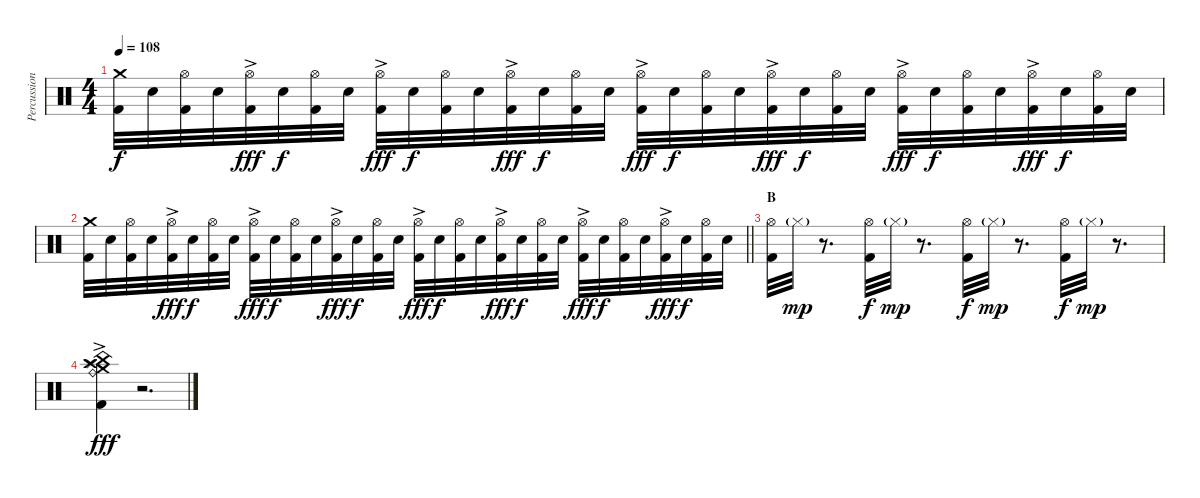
\track ("Percussion" "Percussion") {instrument percussion}
\staff {score}
\articulation defaults
\ts (4 4)
\tempo 108
\clef neutral
\ks c
("Crash medium (hit)" "Kick (hit) 2").32{dy f} "Electric Snare (hit)".32 ("Hi-Hat (open)" "Kick (hit) 2").32 "Electric Snare (hit)".32 ("Hi-Hat (open)"{ac} "Kick (hit) 2").32{dy fff} "Electric Snare (hit)".32{dy f} ("Hi-Hat (open)" "Kick (hit) 2").32 "Electric Snare (hit)".32 ("Hi-Hat (open)"{ac} "Kick (hit) 2").32{dy fff} "Electric Snare (hit)".32{dy f} ("Hi-Hat (open)" "Kick (hit) 2").32 "Electric Snare (hit)".32 ("Hi-Hat (open)"{ac} "Kick (hit) 2").32{dy fff} "Electric Snare (hit)".32{dy f} ("Hi-Hat (open)" "Kick (hit) 2").32 "Electric Snare (hit)".32 ("Hi-Hat (open)"{ac} "Kick (hit) 2").32{dy fff} "Electric Snare (hit)".32{dy f} ("Hi-Hat (open)" "Kick (hit) 2").32 "Electric Snare (hit)".32 ("Hi-Hat (open)"{ac} "Kick (hit) 2").32{dy fff} "Electric Snare (hit)".32{dy f} ("Hi-Hat (open)" "Kick (hit) 2").32 "Electric Snare (hit)".32 ("Hi-Hat (open)"{ac} "Kick (hit) 2").32{dy fff} "Electric Snare (hit)".32{dy f} ("Hi-Hat (open)" "Kick (hit) 2").32 "Electric Snare (hit)".32 ("Hi-Hat (open)"{ac} "Kick (hit) 2").32{dy fff} "Electric Snare (hit)".32{dy f} ("Hi-Hat (open)" "Kick (hit) 2").32 "Electric Snare (hit)".32 |
\barLineRight lightlight
("Crash medium (hit)" "Kick (hit) 2").32 "Electric Snare (hit)".32 ("Hi-Hat (open)" "Kick (hit) 2").32 "Electric Snare (hit)".32 ("Hi-Hat (open)"{ac} "Kick (hit) 2").32{dy fff} "Electric Snare (hit)".32{dy f} ("Hi-Hat (open)" "Kick (hit) 2").32 "Electric Snare (hit)".32 ("Hi-Hat (open)"{ac} "Kick (hit) 2").32{dy fff} "Electric Snare (hit)".32{dy f} ("Hi-Hat (open)" "Kick (hit) 2").32 "Electric Snare (hit)".32 ("Hi-Hat (open)"{ac} "Kick (hit) 2").32{dy fff} "Electric Snare (hit)".32{dy f} ("Hi-Hat (open)" "Kick (hit) 2").32 "Electric Snare (hit)".32 ("Hi-Hat (open)"{ac} "Kick (hit) 2").32{dy fff} "Electric Snare (hit)".32{dy f} ("Hi-Hat (open)" "Kick (hit) 2").32 "Electric Snare (hit)".32 ("Hi-Hat (open)"{ac} "Kick (hit) 2").32{dy fff} "Electric Snare (hit)".32{dy f} ("Hi-Hat (open)" "Kick (hit) 2").32 "Electric Snare (hit)".32 ("Hi-Hat (open)"{ac} "Kick (hit) 2").32{dy fff} "Electric Snare (hit)".32{dy f} ("Hi-Hat (open)" "Kick (hit) 2").32 "Electric Snare (hit)".32 ("Hi-Hat (open)"{ac} "Kick (hit) 2").32{dy fff} "Electric Snare (hit)".32{dy f} ("Hi-Hat (open)" "Kick (hit) 2").32 "Electric Snare (hit)".32 |
\section ("" "B")
("Hi-Hat (open)" "Kick (hit) 2").32 "Hi-Hat (closed)"{g}.32{dy mp} r.8{d} ("Hi-Hat (open)" "Kick (hit) 2").32{dy f} "Hi-Hat (closed)"{g}.32{dy mp} r.8{d} ("Hi-Hat (open)" "Kick (hit) 2").32{dy f} "Hi-Hat (closed)"{g}.32{dy mp} r.8{d} ("Hi-Hat (open)" "Kick (hit) 2").32{dy f} "Hi-Hat (closed)"{g}.32{dy mp} r.8{d} |
("Crash medium (hit)" "Crash high (hit)" "China (hit)" "Splash (hit)"{ac} "Ride (bell)"{ac} "Kick (hit) 2").4{dy fff} r.2{d}
